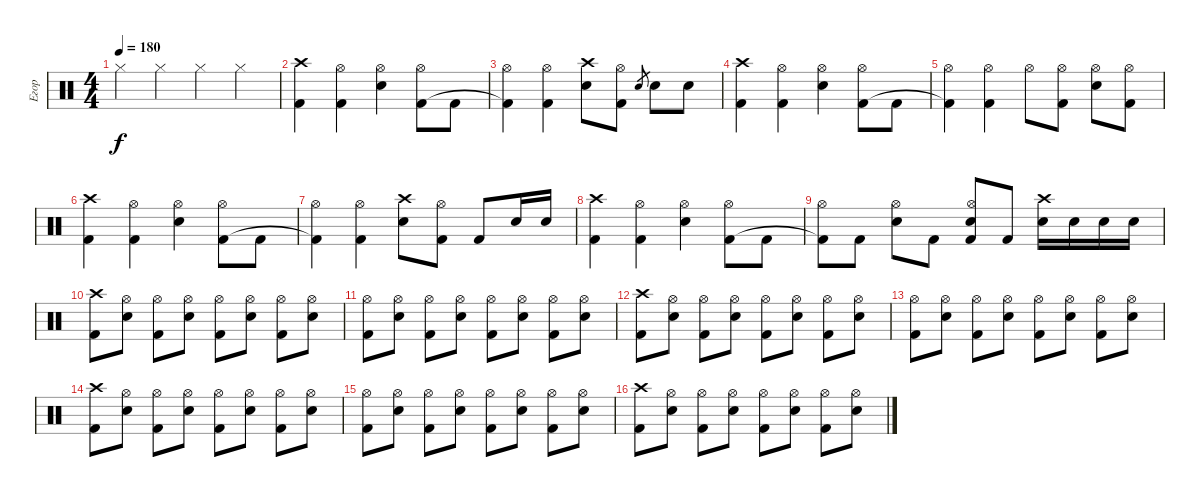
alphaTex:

\track ("Егор" "Егор") {instrument percussion}
\staff {score}
\articulation defaults
\ts (4 4)
\tempo 180
\clef neutral
\ks c "Hi-Hat (closed)".4{dy f} "Hi-Hat (closed)".4 "Hi-Hat (closed)".4 "Hi-Hat (closed)".4
|
("Crash high (hit)" "Kick (hit) 2").4 ("Hi-Hat (open)" "Kick (hit) 2").4 ("Hi-Hat (open)" "Electric Snare (hit)").4 ("Hi-Hat (open)" "Kick (hit) 2").8 "Kick (hit) 2".8 |
("Hi-Hat (open)" "Kick (hit) 2"{t}).4 ("Hi-Hat (open)" "Kick (hit) 2").4 ("Crash high (hit)" "Electric Snare (hit)").8 ("Hi-Hat (open)" "Kick (hit) 2").8 "Electric Snare (hit)".8{gr} "Electric Snare (hit)".8 "Electric Snare (hit)".8 |
("Crash high (hit)" "Kick (hit) 2").4 ("Hi-Hat (open)" "Kick (hit) 2").4 ("Hi-Hat (open)" "Electric Snare (hit)").4 ("Hi-Hat (open)" "Kick (hit) 2").8 "Kick (hit) 2".8 |
("Hi-Hat (open)" "Kick (hit) 2"{t}).4 ("Hi-Hat (open)" "Kick (hit) 2").4 "Hi-Hat (open)".8 ("Hi-Hat (open)" "Kick (hit) 2").8 ("Hi-Hat (open)" "Electric Snare (hit)").8 ("Hi-Hat (open)" "Kick (hit) 2").8 |
("Crash high (hit)" "Kick (hit) 2").4 ("Hi-Hat (open)" "Kick (hit) 2").4 ("Hi-Hat (open)" "Electric Snare (hit)").4 ("Hi-Hat (open)" "Kick (hit) 2").8 "Kick (hit) 2".8 |
("Hi-Hat (open)" "Kick (hit) 2"{t}).4 ("Hi-Hat (open)" "Kick (hit) 2").4 ("Crash high (hit)" "Electric Snare (hit)").8 ("Hi-Hat (open)" "Kick (hit) 2").8 "Kick (hit) 2".8 "Electric Snare (hit)".16 "Electric Snare (hit)".16 |
("Crash high (hit)" "Kick (hit) 2").4 ("Hi-Hat (open)" "Kick (hit) 2").4 ("Hi-Hat (open)" "Electric Snare (hit)").4 ("Hi-Hat (open)" "Kick (hit) 2").8 "Kick (hit) 2".8 |
("Hi-Hat (open)" "Kick (hit) 2"{t}).8 "Kick (hit) 2".8 ("Hi-Hat (open)" "Electric Snare (hit)").8 "Kick (hit) 2".8 ("Hi-Hat (open)" "Electric Snare (hit)" "Kick (hit) 2").8 "Kick (hit) 2".8 ("Crash high (hit)" "Electric Snare (hit)").16 "Electric Snare (hit)".16 "Electric Snare (hit)".16 "Electric Snare (hit)".16 |
("Crash high (hit)" "Kick (hit) 2").8 ("Hi-Hat (open)" "Electric Snare (hit)").8 ("Hi-Hat (open)" "Kick (hit) 2").8 ("Hi-Hat (open)" "Electric Snare (hit)").8 ("Hi-Hat (open)" "Kick (hit) 2").8 ("Hi-Hat (open)" "Electric Snare (hit)").8 ("Hi-Hat (open)" "Kick (hit) 2").8 ("Hi-Hat (open)" "Electric Snare (hit)").8 |
("Hi-Hat (open)" "Kick (hit) 2").8 ("Hi-Hat (open)" "Electric Snare (hit)").8 ("Hi-Hat (open)" "Kick (hit) 2").8 ("Hi-Hat (open)" "Electric Snare (hit)").8 ("Hi-Hat (open)" "Kick (hit) 2").8 ("Hi-Hat (open)" "Electric Snare (hit)").8 ("Hi-Hat (open)" "Kick (hit) 2").8 ("Hi-Hat (open)" "Electric Snare (hit)").8 |
("Crash high (hit)" "Kick (hit) 2").8 ("Hi-Hat (open)" "Electric Snare (hit)").8 ("Hi-Hat (open)" "Kick (hit) 2").8 ("Hi-Hat (open)" "Electric Snare (hit)").8 ("Hi-Hat (open)" "Kick (hit) 2").8 ("Hi-Hat (open)" "Electric Snare (hit)").8 ("Hi-Hat (open)" "Kick (hit) 2").8 ("Hi-Hat (open)" "Electric Snare (hit)").8 |
("Hi-Hat (open)" "Kick (hit) 2").8 ("Hi-Hat (open)" "Electric Snare (hit)").8 ("Hi-Hat (open)" "Kick (hit) 2").8 ("Hi-Hat (open)" "Electric Snare (hit)").8 ("Hi-Hat (open)" "Kick (hit) 2").8 ("Hi-Hat (open)" "Electric Snare (hit)").8 ("Hi-Hat (open)" "Kick (hit) 2").8 ("Hi-Hat (open)" "Electric Snare (hit)").8 |
("Crash high (hit)" "Kick (hit) 2").8 ("Hi-Hat (open)" "Electric Snare (hit)").8 ("Hi-Hat (open)" "Kick (hit) 2").8 ("Hi-Hat (open)" "Electric Snare (hit)").8 ("Hi-Hat (open)" "Kick (hit) 2").8 ("Hi-Hat (open)" "Electric Snare (hit)").8 ("Hi-Hat (open)" "Kick (hit) 2").8 ("Hi-Hat (open)" "Electric Snare (hit)").8 |
("Hi-Hat (open)" "Kick (hit) 2").8 ("Hi-Hat (open)" "Electric Snare (hit)").8 ("Hi-Hat (open)" "Kick (hit) 2").8 ("Hi-Hat (open)" "Electric Snare (hit)").8 ("Hi-Hat (open)" "Kick (hit) 2").8 ("Hi-Hat (open)" "Electric Snare (hit)").8 ("Hi-Hat (open)" "Kick (hit) 2").8 ("Hi-Hat (open)" "Electric Snare (hit)").8 |
("Crash high (hit)" "Kick (hit) 2").8 ("Hi-Hat (open)" "Electric Snare (hit)").8 ("Hi-Hat (open)" "Kick (hit) 2").8 ("Hi-Hat (open)" "Electric Snare (hit)").8 ("Hi-Hat (open)" "Kick (hit) 2").8 ("Hi-Hat (open)" "Electric Snare (hit)").8 ("Hi-Hat (open)" "Kick (hit) 2").8 ("Hi-Hat (open)" "Electric Snare (hit)").8
